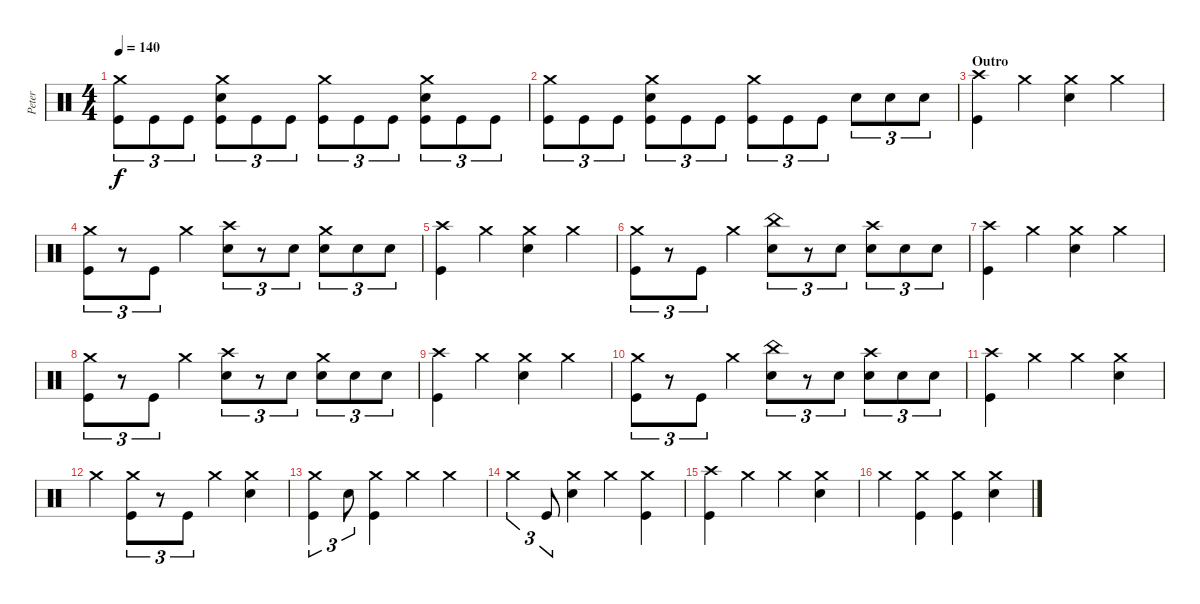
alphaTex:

\track ("Peter" "Peter") {instrument percussion}
\staff {score}
\articulation defaults
\ts (4 4)
\tempo 140
\clef neutral
\ks c
("Crash medium (hit)" "Kick (hit)").8{tu (3 2) dy f} "Kick (hit)".8{tu (3 2)} "Kick (hit)".8{tu (3 2)} ("Crash medium (hit)" "Electric Snare (hit)" "Kick (hit)").8{tu (3 2)} "Kick (hit)".8{tu (3 2)} "Kick (hit)".8{tu (3 2)} ("Crash medium (hit)" "Kick (hit)").8{tu (3 2)} "Kick (hit)".8{tu (3 2)} "Kick (hit)".8{tu (3 2)} ("Crash medium (hit)" "Electric Snare (hit)" "Kick (hit)").8{tu (3 2)} "Kick (hit)".8{tu (3 2)} "Kick (hit)".8{tu (3 2)} |
("Crash medium (hit)" "Kick (hit)").8{tu (3 2)} "Kick (hit)".8{tu (3 2)} "Kick (hit)".8{tu (3 2)} ("Crash medium (hit)" "Electric Snare (hit)" "Kick (hit)").8{tu (3 2)} "Kick (hit)".8{tu (3 2)} "Kick (hit)".8{tu (3 2)} ("Crash medium (hit)" "Kick (hit)").8{tu (3 2)} "Kick (hit)".8{tu (3 2)} "Kick (hit)".8{tu (3 2)} "Electric Snare (hit)".8{tu (3 2)} "Electric Snare (hit)".8{tu (3 2)} "Electric Snare (hit)".8{tu (3 2)} |
\section ("" "Outro")
("Crash high (hit)" "Kick (hit)").4 "Crash medium (hit)".4 ("Crash medium (hit)" "Electric Snare (hit)").4 "Crash medium (hit)".4 |
("Crash medium (hit)" "Kick (hit)").8{tu (3 2)} r.8{tu (3 2)} "Kick (hit)".8{tu (3 2)} "Crash medium (hit)".4 ("Crash high (hit)" "Electric Snare (hit)").8{tu (3 2)} r.8{tu (3 2)} "Electric Snare (hit)".8{tu (3 2)} ("Crash medium (hit)" "Electric Snare (hit)").8{tu (3 2)} "Electric Snare (hit)".8{tu (3 2)} "Electric Snare (hit)".8{tu (3 2)} |
("Crash high (hit)" "Kick (hit)").4 "Crash medium (hit)".4 ("Crash medium (hit)" "Electric Snare (hit)").4 "Crash medium (hit)".4 |
("Crash medium (hit)" "Kick (hit)").8{tu (3 2)} r.8{tu (3 2)} "Kick (hit)".8{tu (3 2)} "Crash medium (hit)".4 ("China (hit)" "Electric Snare (hit)").8{tu (3 2)} r.8{tu (3 2)} "Electric Snare (hit)".8{tu (3 2)} ("Crash high (hit)" "Electric Snare (hit)").8{tu (3 2)} "Electric Snare (hit)".8{tu (3 2)} "Electric Snare (hit)".8{tu (3 2)} |
("Crash high (hit)" "Kick (hit)").4 "Crash medium (hit)".4 ("Crash medium (hit)" "Electric Snare (hit)").4 "Crash medium (hit)".4 |
("Crash medium (hit)" "Kick (hit)").8{tu (3 2)} r.8{tu (3 2)} "Kick (hit)".8{tu (3 2)} "Crash medium (hit)".4 ("Crash high (hit)" "Electric Snare (hit)").8{tu (3 2)} r.8{tu (3 2)} "Electric Snare (hit)".8{tu (3 2)} ("Crash medium (hit)" "Electric Snare (hit)").8{tu (3 2)} "Electric Snare (hit)".8{tu (3 2)} "Electric Snare (hit)".8{tu (3 2)} |
("Crash high (hit)" "Kick (hit)").4 "Crash medium (hit)".4 ("Crash medium (hit)" "Electric Snare (hit)").4 "Crash medium (hit)".4 |
("Crash medium (hit)" "Kick (hit)").8{tu (3 2)} r.8{tu (3 2)} "Kick (hit)".8{tu (3 2)} "Crash medium (hit)".4 ("China (hit)" "Electric Snare (hit)").8{tu (3 2)} r.8{tu (3 2)} "Electric Snare (hit)".8{tu (3 2)} ("Crash high (hit)" "Electric Snare (hit)").8{tu (3 2)} "Electric Snare (hit)".8{tu (3 2)} "Electric Snare (hit)".8{tu (3 2)} |
("Crash high (hit)" "Kick (hit)").4 "Crash medium (hit)".4 "Crash medium (hit)".4 ("Crash medium (hit)" "Electric Snare (hit)").4 |
"Crash medium (hit)".4 ("Crash medium (hit)" "Kick (hit)").8{tu (3 2)} r.8{tu (3 2)} "Kick (hit)".8{tu (3 2)} "Crash medium (hit)".4 ("Crash medium (hit)" "Electric Snare (hit)").4 |
("Crash medium (hit)" "Kick (hit)").4{tu (3 2)} "Electric Snare (hit)".8{tu (3 2)} ("Crash medium (hit)" "Kick (hit)").4 "Crash medium (hit)".4 "Crash medium (hit)".4 |
"Crash medium (hit)".4{tu (3 2)} "Kick (hit)".8{tu (3 2)} ("Crash medium (hit)" "Electric Snare (hit)").4 "Crash medium (hit)".4 ("Crash medium (hit)" "Kick (hit)").4 |
("Crash high (hit)" "Kick (hit)").4 "Crash medium (hit)".4 "Crash medium (hit)".4 ("Crash medium (hit)" "Electric Snare (hit)").4 |
"Crash medium (hit)".4 ("Crash medium (hit)" "Kick (hit)").4 ("Crash medium (hit)" "Kick (hit)").4 ("Crash medium (hit)" "Electric Snare (hit)").4
